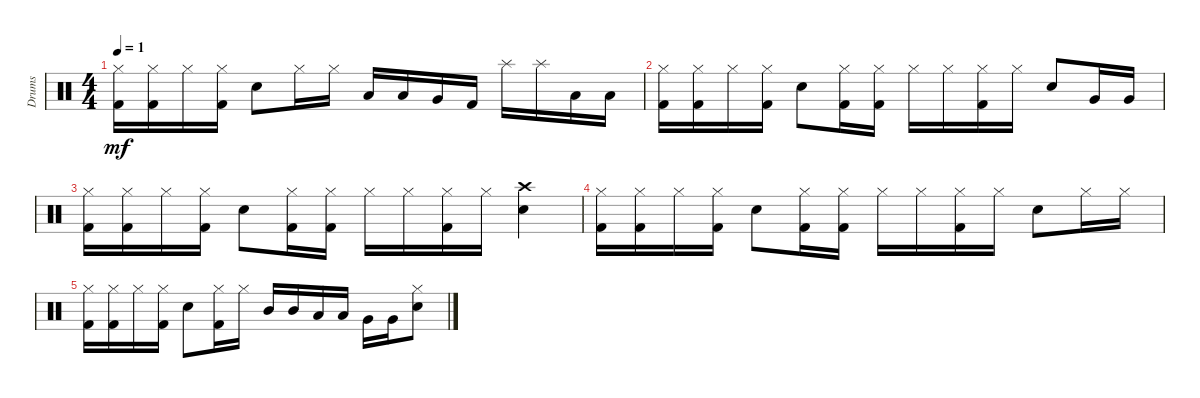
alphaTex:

\track ("Drums" "Drums") {instrument percussion}
\staff {score}
\articulation defaults
\ts (4 4)
\tempo 1
\clef neutral
\ks c
("Hi-Hat (closed)" "Kick (hit) 2").16{dy mf} ("Hi-Hat (closed)" "Kick (hit) 2").16 "Hi-Hat (closed)".16 ("Hi-Hat (closed)" "Kick (hit) 2").16 "Snare (hit) 2".8 "Hi-Hat (closed)".16 "Hi-Hat (closed)".16 "Low Tom (hit)".16 "Low Tom (hit)".16 "Very Low Tom (hit)".16 "Kick (hit) 2".16 "Splash (hit)".16 "Splash (hit)".16 "Low Floor Tom (hit)".16 "Low Floor Tom (hit)".16 |
("Hi-Hat (closed)" "Kick (hit) 2").16 ("Hi-Hat (closed)" "Kick (hit) 2").16 "Hi-Hat (closed)".16 ("Hi-Hat (closed)" "Kick (hit) 2").16 "Snare (hit) 2".8 ("Hi-Hat (closed)" "Kick (hit) 2").16 ("Hi-Hat (closed)" "Kick (hit) 2").16 "Hi-Hat (closed)".16 "Hi-Hat (closed)".16 ("Hi-Hat (closed)" "Kick (hit) 2").16 "Hi-Hat (closed)".16 "Snare (hit) 2".8 "Very Low Tom (hit)".16 "Very Low Tom (hit)".16 |
("Hi-Hat (closed)" "Kick (hit) 2").16 ("Hi-Hat (closed)" "Kick (hit) 2").16 "Hi-Hat (closed)".16 ("Hi-Hat (closed)" "Kick (hit) 2").16 "Snare (hit) 2".8 ("Hi-Hat (closed)" "Kick (hit) 2").16 ("Hi-Hat (closed)" "Kick (hit) 2").16 "Hi-Hat (closed)".16 "Hi-Hat (closed)".16 ("Hi-Hat (closed)" "Kick (hit) 2").16 "Hi-Hat (closed)".16 ("Snare (hit) 2" "Crash high (hit)").4 |
("Hi-Hat (closed)" "Kick (hit) 2").16 ("Hi-Hat (closed)" "Kick (hit) 2").16 "Hi-Hat (closed)".16 ("Hi-Hat (closed)" "Kick (hit) 2").16 "Snare (hit) 2".8 ("Hi-Hat (closed)" "Kick (hit) 2").16 ("Hi-Hat (closed)" "Kick (hit) 2").16 "Hi-Hat (closed)".16 "Hi-Hat (closed)".16 ("Hi-Hat (closed)" "Kick (hit) 2").16 "Hi-Hat (closed)".16 "Snare (hit) 2".8 "Hi-Hat (closed)".16 "Hi-Hat (closed)".16 |
("Hi-Hat (closed)" "Kick (hit) 2").16 ("Hi-Hat (closed)" "Kick (hit) 2").16 "Hi-Hat (closed)".16 ("Hi-Hat (closed)" "Kick (hit) 2").16 "Snare (hit) 2".8 ("Hi-Hat (closed)" "Kick (hit) 2").16 "Hi-Hat (closed)".16 "Mid Tom (hit)".16 "Mid Tom (hit)".16 "Low Tom (hit)".16 "Low Tom (hit)".16 "Very Low Tom (hit)".16 "Very Low Tom (hit)".16 ("Snare (hit) 2" "Hi-Hat (closed)").8
